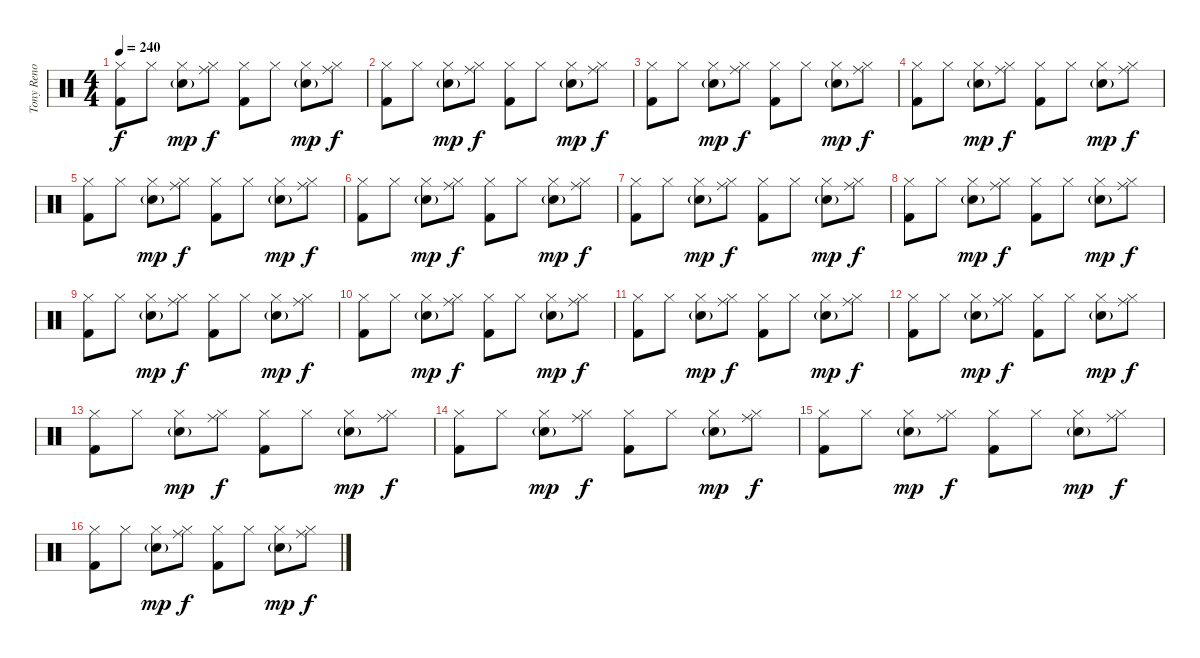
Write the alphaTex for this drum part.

\track ("Tony Reno" "Tony Reno") {instrument percussion}
\staff {score}
\articulation defaults
\ts (4 4)
\tempo 240
\clef neutral
\ks c
("Hi-Hat (closed)" "Kick (hit) 2").8{dy f} "Hi-Hat (closed)".8 ("Hi-Hat (closed)" "Electric Snare (hit)"{g}).8{dy mp} ("Hi-Hat (closed)" "Ride (middle)").8{dy f} ("Hi-Hat (closed)" "Kick (hit) 2").8 "Hi-Hat (closed)".8 ("Hi-Hat (closed)" "Electric Snare (hit)"{g}).8{dy mp} ("Hi-Hat (closed)" "Ride (middle)").8{dy f} |
("Hi-Hat (closed)" "Kick (hit) 2").8 "Hi-Hat (closed)".8 ("Hi-Hat (closed)" "Electric Snare (hit)"{g}).8{dy mp} ("Hi-Hat (closed)" "Ride (middle)").8{dy f} ("Hi-Hat (closed)" "Kick (hit) 2").8 "Hi-Hat (closed)".8 ("Hi-Hat (closed)" "Electric Snare (hit)"{g}).8{dy mp} ("Hi-Hat (closed)" "Ride (middle)").8{dy f} |
("Hi-Hat (closed)" "Kick (hit) 2").8 "Hi-Hat (closed)".8 ("Hi-Hat (closed)" "Electric Snare (hit)"{g}).8{dy mp} ("Hi-Hat (closed)" "Ride (middle)").8{dy f} ("Hi-Hat (closed)" "Kick (hit) 2").8 "Hi-Hat (closed)".8 ("Hi-Hat (closed)" "Electric Snare (hit)"{g}).8{dy mp} ("Hi-Hat (closed)" "Ride (middle)").8{dy f} |
("Hi-Hat (closed)" "Kick (hit) 2").8 "Hi-Hat (closed)".8 ("Hi-Hat (closed)" "Electric Snare (hit)"{g}).8{dy mp} ("Hi-Hat (closed)" "Ride (middle)").8{dy f} ("Hi-Hat (closed)" "Kick (hit) 2").8 "Hi-Hat (closed)".8 ("Hi-Hat (closed)" "Electric Snare (hit)"{g}).8{dy mp} ("Hi-Hat (closed)" "Ride (middle)").8{dy f} |
("Hi-Hat (closed)" "Kick (hit) 2").8 "Hi-Hat (closed)".8 ("Hi-Hat (closed)" "Electric Snare (hit)"{g}).8{dy mp} ("Hi-Hat (closed)" "Ride (middle)").8{dy f} ("Hi-Hat (closed)" "Kick (hit) 2").8 "Hi-Hat (closed)".8 ("Hi-Hat (closed)" "Electric Snare (hit)"{g}).8{dy mp} ("Hi-Hat (closed)" "Ride (middle)").8{dy f} |
("Hi-Hat (closed)" "Kick (hit) 2").8 "Hi-Hat (closed)".8 ("Hi-Hat (closed)" "Electric Snare (hit)"{g}).8{dy mp} ("Hi-Hat (closed)" "Ride (middle)").8{dy f} ("Hi-Hat (closed)" "Kick (hit) 2").8 "Hi-Hat (closed)".8 ("Hi-Hat (closed)" "Electric Snare (hit)"{g}).8{dy mp} ("Hi-Hat (closed)" "Ride (middle)").8{dy f} |
("Hi-Hat (closed)" "Kick (hit) 2").8 "Hi-Hat (closed)".8 ("Hi-Hat (closed)" "Electric Snare (hit)"{g}).8{dy mp} ("Hi-Hat (closed)" "Ride (middle)").8{dy f} ("Hi-Hat (closed)" "Kick (hit) 2").8 "Hi-Hat (closed)".8 ("Hi-Hat (closed)" "Electric Snare (hit)"{g}).8{dy mp} ("Hi-Hat (closed)" "Ride (middle)").8{dy f} |
("Hi-Hat (closed)" "Kick (hit) 2").8 "Hi-Hat (closed)".8 ("Hi-Hat (closed)" "Electric Snare (hit)"{g}).8{dy mp} ("Hi-Hat (closed)" "Ride (middle)").8{dy f} ("Hi-Hat (closed)" "Kick (hit) 2").8 "Hi-Hat (closed)".8 ("Hi-Hat (closed)" "Electric Snare (hit)"{g}).8{dy mp} ("Hi-Hat (closed)" "Ride (middle)").8{dy f} |
("Hi-Hat (closed)" "Kick (hit) 2").8 "Hi-Hat (closed)".8 ("Hi-Hat (closed)" "Electric Snare (hit)"{g}).8{dy mp} ("Hi-Hat (closed)" "Ride (middle)").8{dy f} ("Hi-Hat (closed)" "Kick (hit) 2").8 "Hi-Hat (closed)".8 ("Hi-Hat (closed)" "Electric Snare (hit)"{g}).8{dy mp} ("Hi-Hat (closed)" "Ride (middle)").8{dy f} |
("Hi-Hat (closed)" "Kick (hit) 2").8 "Hi-Hat (closed)".8 ("Hi-Hat (closed)" "Electric Snare (hit)"{g}).8{dy mp} ("Hi-Hat (closed)" "Ride (middle)").8{dy f} ("Hi-Hat (closed)" "Kick (hit) 2").8 "Hi-Hat (closed)".8 ("Hi-Hat (closed)" "Electric Snare (hit)"{g}).8{dy mp} ("Hi-Hat (closed)" "Ride (middle)").8{dy f} |
("Hi-Hat (closed)" "Kick (hit) 2").8 "Hi-Hat (closed)".8 ("Hi-Hat (closed)" "Electric Snare (hit)"{g}).8{dy mp} ("Hi-Hat (closed)" "Ride (middle)").8{dy f} ("Hi-Hat (closed)" "Kick (hit) 2").8 "Hi-Hat (closed)".8 ("Hi-Hat (closed)" "Electric Snare (hit)"{g}).8{dy mp} ("Hi-Hat (closed)" "Ride (middle)").8{dy f} |
("Hi-Hat (closed)" "Kick (hit) 2").8 "Hi-Hat (closed)".8 ("Hi-Hat (closed)" "Electric Snare (hit)"{g}).8{dy mp} ("Hi-Hat (closed)" "Ride (middle)").8{dy f} ("Hi-Hat (closed)" "Kick (hit) 2").8 "Hi-Hat (closed)".8 ("Hi-Hat (closed)" "Electric Snare (hit)"{g}).8{dy mp} ("Hi-Hat (closed)" "Ride (middle)").8{dy f} |
("Hi-Hat (closed)" "Kick (hit) 2").8 "Hi-Hat (closed)".8 ("Hi-Hat (closed)" "Electric Snare (hit)"{g}).8{dy mp} ("Hi-Hat (closed)" "Ride (middle)").8{dy f} ("Hi-Hat (closed)" "Kick (hit) 2").8 "Hi-Hat (closed)".8 ("Hi-Hat (closed)" "Electric Snare (hit)"{g}).8{dy mp} ("Hi-Hat (closed)" "Ride (middle)").8{dy f} |
("Hi-Hat (closed)" "Kick (hit) 2").8 "Hi-Hat (closed)".8 ("Hi-Hat (closed)" "Electric Snare (hit)"{g}).8{dy mp} ("Hi-Hat (closed)" "Ride (middle)").8{dy f} ("Hi-Hat (closed)" "Kick (hit) 2").8 "Hi-Hat (closed)".8 ("Hi-Hat (closed)" "Electric Snare (hit)"{g}).8{dy mp} ("Hi-Hat (closed)" "Ride (middle)").8{dy f} |
("Hi-Hat (closed)" "Kick (hit) 2").8 "Hi-Hat (closed)".8 ("Hi-Hat (closed)" "Electric Snare (hit)"{g}).8{dy mp} ("Hi-Hat (closed)" "Ride (middle)").8{dy f} ("Hi-Hat (closed)" "Kick (hit) 2").8 "Hi-Hat (closed)".8 ("Hi-Hat (closed)" "Electric Snare (hit)"{g}).8{dy mp} ("Hi-Hat (closed)" "Ride (middle)").8{dy f} |
("Hi-Hat (closed)" "Kick (hit) 2").8 "Hi-Hat (closed)".8 ("Hi-Hat (closed)" "Electric Snare (hit)"{g}).8{dy mp} ("Hi-Hat (closed)" "Ride (middle)").8{dy f} ("Hi-Hat (closed)" "Kick (hit) 2").8 "Hi-Hat (closed)".8 ("Hi-Hat (closed)" "Electric Snare (hit)"{g}).8{dy mp} ("Hi-Hat (closed)" "Ride (middle)").8{dy f}
